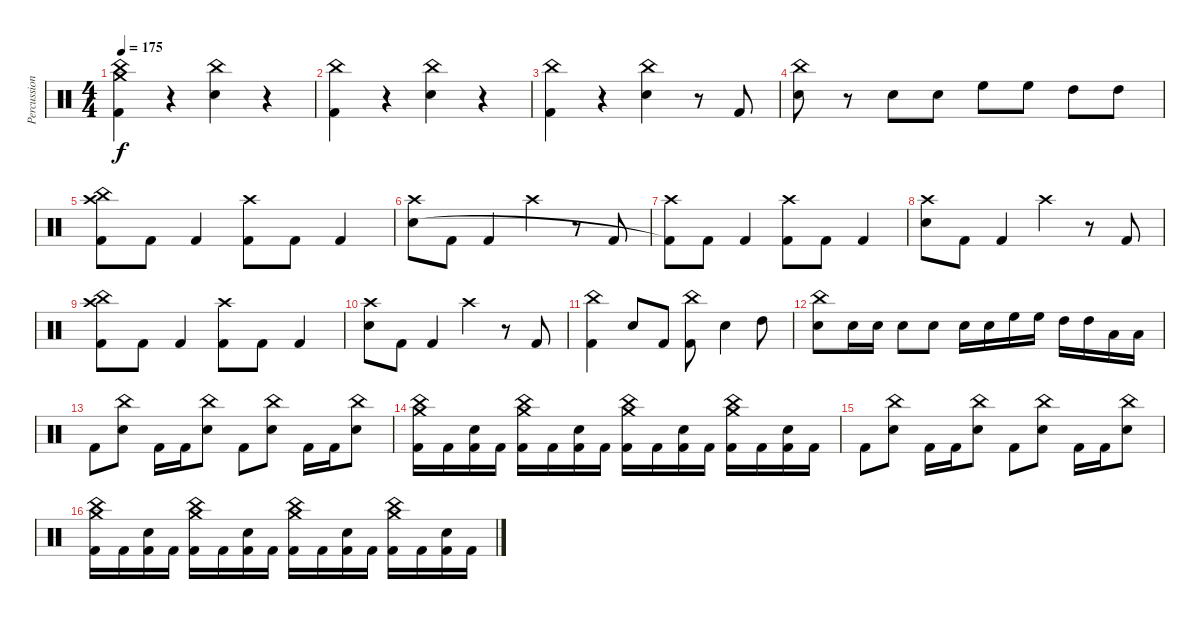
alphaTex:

\track ("Percussion" "Percussion") {instrument percussion}
\staff {score}
\articulation defaults
\ts (4 4)
\tempo 175
\clef neutral
\ks c
("China (hit)" "Crash medium (hit)" "Kick (hit) 2").4{dy f} r.4 ("China (hit)" "Electric Snare (hit)").4 r.4 |
("China (hit)" "Kick (hit) 2").4 r.4 ("China (hit)" "Electric Snare (hit)").4 r.4 |
("China (hit)" "Kick (hit) 2").4 r.4 ("China (hit)" "Electric Snare (hit)").4 r.8 "Kick (hit) 2".8 |
("China (hit)" "Electric Snare (hit)").8 r.8 "Electric Snare (hit)".8 "Electric Snare (hit)".8 "High Floor Tom (hit)".8 "High Floor Tom (hit)".8 "High Tom (hit)".8 "High Tom (hit)".8 |
("Crash high (hit)" "China (hit)" "Kick (hit) 2").8 "Kick (hit) 2".8 "Kick (hit) 2".4 ("Crash high (hit)" "Kick (hit) 2").8 "Kick (hit) 2".8 "Kick (hit) 2".4 |
("Crash high (hit)" "Electric Snare (hit)").8 "Kick (hit) 2".8 "Kick (hit) 2".4 "Crash high (hit)".4 r.8 "Kick (hit) 2".8 |
("Crash high (hit)" "Kick (hit) 2"{t}).8 "Kick (hit) 2".8 "Kick (hit) 2".4 ("Crash high (hit)" "Kick (hit) 2").8 "Kick (hit) 2".8 "Kick (hit) 2".4 |
("Crash high (hit)" "Electric Snare (hit)").8 "Kick (hit) 2".8 "Kick (hit) 2".4 "Crash high (hit)".4 r.8 "Kick (hit) 2".8 |
("Crash high (hit)" "China (hit)" "Kick (hit) 2").8 "Kick (hit) 2".8 "Kick (hit) 2".4 ("Crash high (hit)" "Kick (hit) 2").8 "Kick (hit) 2".8 "Kick (hit) 2".4 |
("Crash high (hit)" "Electric Snare (hit)").8 "Kick (hit) 2".8 "Kick (hit) 2".4 "Crash high (hit)".4 r.8 "Kick (hit) 2".8 |
("China (hit)" "Kick (hit) 2").4 "Electric Snare (hit)".8 "Kick (hit) 2".8 ("China (hit)" "Kick (hit) 2").8 "Electric Snare (hit)".4 "High Tom (hit)".8 |
("China (hit)" "Electric Snare (hit)").8 "Electric Snare (hit)".16 "Electric Snare (hit)".16 "Electric Snare (hit)".8 "Electric Snare (hit)".8 "Electric Snare (hit)".16 "Electric Snare (hit)".16 "High Floor Tom (hit)".16 "High Floor Tom (hit)".16 "High Tom (hit)".16 "High Tom (hit)".16 "Low Floor Tom (hit)".16 "Low Floor Tom (hit)".16 |
"Kick (hit) 2".8 ("China (hit)" "Electric Snare (hit)").8 "Kick (hit) 2".16 "Kick (hit) 2".16 ("China (hit)" "Electric Snare (hit)").8 "Kick (hit) 2".8 ("China (hit)" "Electric Snare (hit)").8 "Kick (hit) 2".16 "Kick (hit) 2".16 ("China (hit)" "Electric Snare (hit)").8 |
("Crash medium (hit)" "China (hit)" "Kick (hit) 2").16 "Kick (hit) 2".16 ("Electric Snare (hit)" "Kick (hit) 2").16 "Kick (hit) 2".16 ("Crash medium (hit)" "China (hit)" "Kick (hit) 2").16 "Kick (hit) 2".16 ("Electric Snare (hit)" "Kick (hit) 2").16 "Kick (hit) 2".16 ("Crash medium (hit)" "China (hit)" "Kick (hit) 2").16 "Kick (hit) 2".16 ("Electric Snare (hit)" "Kick (hit) 2").16 "Kick (hit) 2".16 ("Crash medium (hit)" "China (hit)" "Kick (hit) 2").16 "Kick (hit) 2".16 ("Electric Snare (hit)" "Kick (hit) 2").16 "Kick (hit) 2".16 |
"Kick (hit) 2".8 ("China (hit)" "Electric Snare (hit)").8 "Kick (hit) 2".16 "Kick (hit) 2".16 ("China (hit)" "Electric Snare (hit)").8 "Kick (hit) 2".8 ("China (hit)" "Electric Snare (hit)").8 "Kick (hit) 2".16 "Kick (hit) 2".16 ("China (hit)" "Electric Snare (hit)").8 |
("Crash medium (hit)" "China (hit)" "Kick (hit) 2").16 "Kick (hit) 2".16 ("Electric Snare (hit)" "Kick (hit) 2").16 "Kick (hit) 2".16 ("Crash medium (hit)" "China (hit)" "Kick (hit) 2").16 "Kick (hit) 2".16 ("Electric Snare (hit)" "Kick (hit) 2").16 "Kick (hit) 2".16 ("Crash medium (hit)" "China (hit)" "Kick (hit) 2").16 "Kick (hit) 2".16 ("Electric Snare (hit)" "Kick (hit) 2").16 "Kick (hit) 2".16 ("Crash medium (hit)" "China (hit)" "Kick (hit) 2").16 "Kick (hit) 2".16 ("Electric Snare (hit)" "Kick (hit) 2").16 "Kick (hit) 2".16
